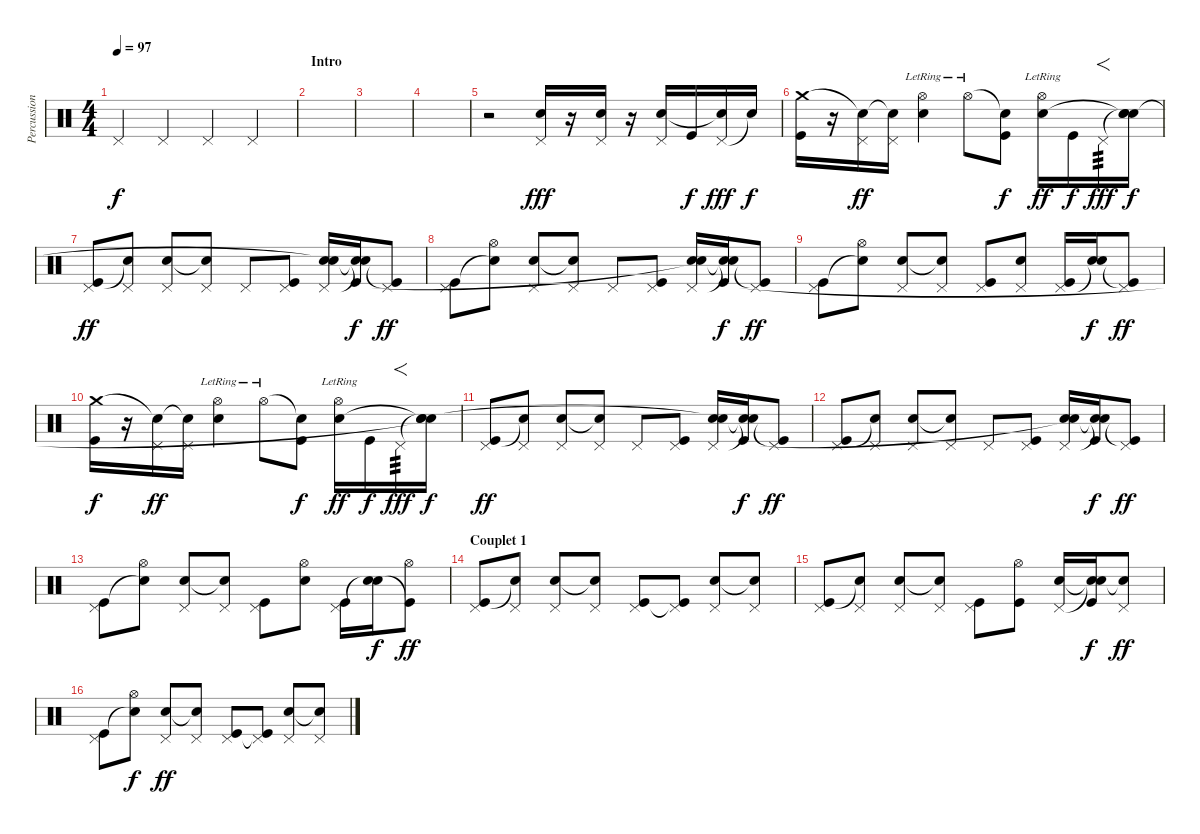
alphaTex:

\track ("Percussions" "Percussion") {instrument percussion}
\staff {score}
\articulation defaults
\ts (4 4)
\tempo 97
\clef neutral
\ks c "Pedal Hi-Hat (hit)".4{dy f} "Pedal Hi-Hat (hit)".4 "Pedal Hi-Hat (hit)".4 "Pedal Hi-Hat (hit)".4
|
\section ("" "Intro")
|
|
|
r.2 ("Pedal Hi-Hat (hit)" "Snare (hit) 2").16{dy fff} r.16 ("Pedal Hi-Hat (hit)" "Snare (hit) 2").16 r.16 ("Pedal Hi-Hat (hit)" "Snare (hit) 2").16 "Kick (hit)".16{dy f} ("Pedal Hi-Hat (hit)" "Snare (hit)"{t}).16{dy fff} "Snare (hit)"{t}.16{dy f} |
("Crash medium (hit)" "Kick (hit)").16 r.16 ("Snare (hit)"{t} "Pedal Hi-Hat (hit)").16{dy ff} ("Snare (hit)"{t} "Pedal Hi-Hat (hit)").16 ("Hi-Hat (open)"{lr} "Snare (hit) 2").4 "Hi-Hat (open)"{lr}.8 ("Snare (hit)"{t} "Kick (hit)").8{dy f} ("Hi-Hat (open)"{lr} "Snare (hit) 2").16{dy ff} "Kick (hit)".16{dy f} "Pedal Hi-Hat (hit)".16{f tp 3 dy fff} ("Snare (hit)"{t} "Snare (hit)"{t} "Snare (hit)").16{dy f} |
("Pedal Hi-Hat (hit)" "Kick (hit)").8{dy ff} ("Pedal Hi-Hat (hit)" "Snare (hit)"{t}).8 ("Pedal Hi-Hat (hit)" "Snare (hit) 2").8 ("Pedal Hi-Hat (hit)" "Snare (hit)"{t}).8 "Pedal Hi-Hat (hit)".8 ("Pedal Hi-Hat (hit)" "Kick (hit)").8 ("Pedal Hi-Hat (hit)" "Snare (hit) 2" "Snare (hit)"{t}).16 ("Snare (hit)"{t} "Snare (hit)"{t} "Kick (hit)").16{dy f} ("Pedal Hi-Hat (hit)" "Kick (hit)"{t}).8{dy ff} |
("Pedal Hi-Hat (hit)" "Kick (hit)").8 ("Hi-Hat (open)" "Snare (hit)"{t}).8 ("Pedal Hi-Hat (hit)" "Snare (hit) 2").8 ("Pedal Hi-Hat (hit)" "Snare (hit)"{t}).8 "Pedal Hi-Hat (hit)".8 ("Pedal Hi-Hat (hit)" "Kick (hit)").8 ("Pedal Hi-Hat (hit)" "Snare (hit) 2" "Snare (hit)"{t}).16 ("Snare (hit)"{t} "Snare (hit)"{t} "Kick (hit)").16{dy f} ("Pedal Hi-Hat (hit)" "Kick (hit)"{t}).8{dy ff} |
("Pedal Hi-Hat (hit)" "Kick (hit)").8 ("Hi-Hat (open)" "Snare (hit)"{t}).8 ("Pedal Hi-Hat (hit)" "Snare (hit) 2").8 ("Pedal Hi-Hat (hit)" "Snare (hit)"{t}).8 ("Pedal Hi-Hat (hit)" "Kick (hit)").8 ("Pedal Hi-Hat (hit)" "Snare (hit) 2").8 ("Pedal Hi-Hat (hit)" "Kick (hit)").16 ("Snare (hit)"{t} "Snare (hit) 2").16{dy f} ("Pedal Hi-Hat (hit)" "Kick (hit)"{t}).8{dy ff} |
("Crash medium (hit)" "Kick (hit)").16{dy f} r.16 ("Snare (hit)"{t} "Pedal Hi-Hat (hit)").16{dy ff} ("Snare (hit)"{t} "Pedal Hi-Hat (hit)").16 ("Hi-Hat (open)"{lr} "Snare (hit) 2").4 "Hi-Hat (open)"{lr}.8 ("Snare (hit)"{t} "Kick (hit)").8{dy f} ("Hi-Hat (open)"{lr} "Snare (hit) 2").16{dy ff} "Kick (hit)".16{dy f} "Pedal Hi-Hat (hit)".16{f tp 3 dy fff} ("Snare (hit)"{t} "Snare (hit)"{t} "Snare (hit)"{t}).16{dy f} |
("Pedal Hi-Hat (hit)" "Kick (hit)").8{dy ff} ("Pedal Hi-Hat (hit)" "Snare (hit)"{t}).8 ("Pedal Hi-Hat (hit)" "Snare (hit) 2").8 ("Pedal Hi-Hat (hit)" "Snare (hit)"{t}).8 "Pedal Hi-Hat (hit)".8 ("Pedal Hi-Hat (hit)" "Kick (hit)").8 ("Pedal Hi-Hat (hit)" "Snare (hit) 2" "Snare (hit)"{t}).16 ("Snare (hit)"{t} "Snare (hit)"{t} "Kick (hit)").16{dy f} ("Pedal Hi-Hat (hit)" "Kick (hit)"{t}).8{dy ff} |
("Pedal Hi-Hat (hit)" "Kick (hit)").8 ("Pedal Hi-Hat (hit)" "Snare (hit)"{t}).8 ("Pedal Hi-Hat (hit)" "Snare (hit) 2").8 ("Pedal Hi-Hat (hit)" "Snare (hit)"{t}).8 "Pedal Hi-Hat (hit)".8 ("Pedal Hi-Hat (hit)" "Kick (hit)").8 ("Pedal Hi-Hat (hit)" "Snare (hit) 2" "Snare (hit)"{t}).16 ("Snare (hit)"{t} "Snare (hit)"{t} "Kick (hit)").16{dy f} ("Pedal Hi-Hat (hit)" "Kick (hit)"{t}).8{dy ff} |
("Pedal Hi-Hat (hit)" "Kick (hit)").8 ("Hi-Hat (open)" "Snare (hit)"{t}).8 ("Pedal Hi-Hat (hit)" "Snare (hit) 2").8 ("Pedal Hi-Hat (hit)" "Snare (hit)"{t}).8 ("Pedal Hi-Hat (hit)" "Kick (hit)").8 ("Hi-Hat (open)" "Snare (hit) 2").8 ("Pedal Hi-Hat (hit)" "Kick (hit)").16 ("Snare (hit)"{t} "Snare (hit) 2").16{dy f} ("Hi-Hat (open)" "Kick (hit)"{t}).8{dy ff} |
\section ("" "Couplet 1")
("Pedal Hi-Hat (hit)" "Kick (hit)").8 ("Pedal Hi-Hat (hit)" "Snare (hit)"{t}).8 ("Pedal Hi-Hat (hit)" "Snare (hit) 2").8 ("Pedal Hi-Hat (hit)" "Snare (hit)"{t}).8 ("Pedal Hi-Hat (hit)" "Kick (hit)").8 ("Pedal Hi-Hat (hit)" "Kick (hit)"{t}).8 ("Pedal Hi-Hat (hit)" "Snare (hit) 2").8 ("Pedal Hi-Hat (hit)" "Snare (hit)"{t}).8 |
("Pedal Hi-Hat (hit)" "Kick (hit)").8 ("Pedal Hi-Hat (hit)" "Snare (hit)"{t}).8 ("Pedal Hi-Hat (hit)" "Snare (hit) 2").8 ("Pedal Hi-Hat (hit)" "Snare (hit)"{t}).8 ("Pedal Hi-Hat (hit)" "Kick (hit)").8 ("Hi-Hat (open)" "Kick (hit)").8 ("Pedal Hi-Hat (hit)" "Snare (hit) 2").16 ("Snare (hit)"{t} "Snare (hit)"{t} "Kick (hit)").16{dy f} ("Pedal Hi-Hat (hit)" "Snare (hit)"{t}).8{dy ff} |
("Pedal Hi-Hat (hit)" "Kick (hit)").8 ("Hi-Hat (open)" "Snare (hit)"{t}).8{dy f} ("Pedal Hi-Hat (hit)" "Snare (hit) 2").8{dy ff} ("Pedal Hi-Hat (hit)" "Snare (hit)"{t}).8 ("Pedal Hi-Hat (hit)" "Kick (hit)").8 ("Pedal Hi-Hat (hit)" "Kick (hit)"{t}).8 ("Pedal Hi-Hat (hit)" "Snare (hit) 2").8 ("Pedal Hi-Hat (hit)" "Snare (hit)"{t}).8
